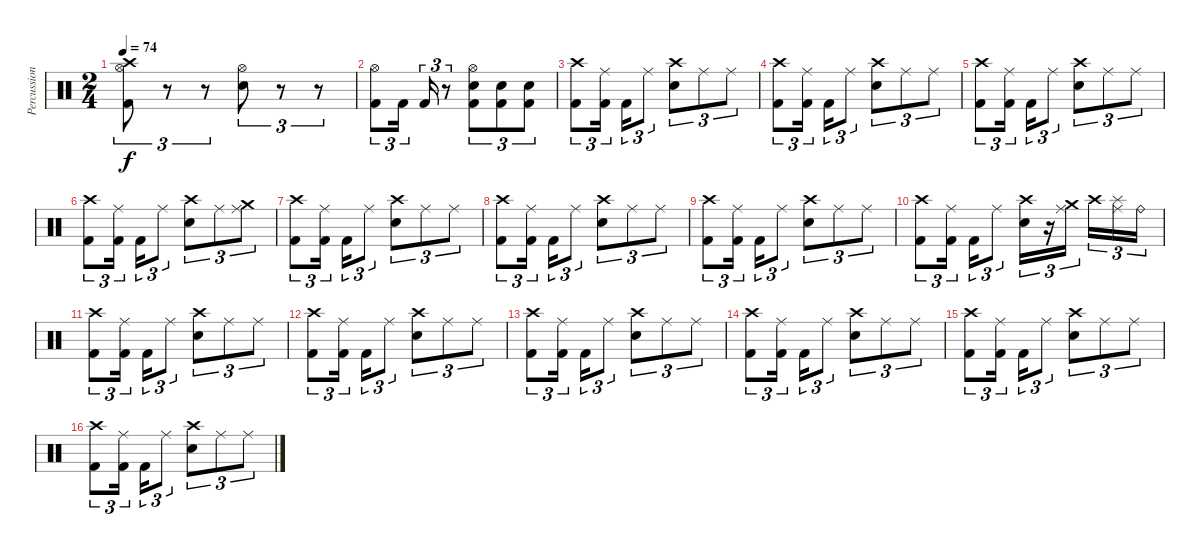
\track ("Percussion" "Percussion") {instrument percussion}
\staff {score}
\articulation defaults
\ts (2 4)
\tempo 74
\clef neutral
\ks c
("Crash high (hit)" "Hi-Hat (open)" "Kick (hit) 2").8{tu (3 2) dy f} r.8{tu (3 2)} r.8{tu (3 2)} ("Hi-Hat (open)" "Snare (hit) 2").8{tu (3 2)} r.8{tu (3 2)} r.8{tu (3 2)} |
("Hi-Hat (open)" "Kick (hit) 2").8{tu (3 2)} "Kick (hit) 2".16{tu (3 2)} "Kick (hit) 2".16{tu (3 2)} r.8{tu (3 2)} ("Hi-Hat (open)" "Kick (hit) 2" "Snare (hit) 2").8{tu (3 2)} ("Snare (hit) 2" "Kick (hit) 2").8{tu (3 2)} ("Kick (hit) 2" "Snare (hit) 2").8{tu (3 2)} |
("Crash high (hit)" "Kick (hit) 2").8{tu (3 2)} ("Ride (middle)" "Kick (hit) 2").16{tu (3 2)} "Kick (hit) 2".16{tu (3 2)} "Ride (middle)".8{tu (3 2)} ("Crash high (hit)" "Snare (hit) 2").8{tu (3 2)} "Ride (middle)".8{tu (3 2)} "Ride (middle)".8{tu (3 2)} |
("Crash high (hit)" "Kick (hit) 2").8{tu (3 2)} ("Ride (middle)" "Kick (hit) 2").16{tu (3 2)} "Kick (hit) 2".16{tu (3 2)} "Ride (middle)".8{tu (3 2)} ("Crash high (hit)" "Snare (hit) 2").8{tu (3 2)} "Ride (middle)".8{tu (3 2)} "Ride (middle)".8{tu (3 2)} |
("Crash high (hit)" "Kick (hit) 2").8{tu (3 2)} ("Ride (middle)" "Kick (hit) 2").16{tu (3 2)} "Kick (hit) 2".16{tu (3 2)} "Ride (middle)".8{tu (3 2)} ("Crash high (hit)" "Snare (hit) 2").8{tu (3 2)} "Ride (middle)".8{tu (3 2)} "Ride (middle)".8{tu (3 2)} |
("Crash high (hit)" "Kick (hit) 2").8{tu (3 2)} ("Ride (middle)" "Kick (hit) 2").16{tu (3 2)} "Kick (hit) 2".16{tu (3 2)} "Ride (middle)".8{tu (3 2)} ("Crash high (hit)" "Snare (hit) 2").8{tu (3 2)} "Ride (middle)".8{tu (3 2)} ("Ride (middle)" "Crash medium (hit)").8{tu (3 2)} |
("Crash high (hit)" "Kick (hit) 2").8{tu (3 2)} ("Ride (middle)" "Kick (hit) 2").16{tu (3 2)} "Kick (hit) 2".16{tu (3 2)} "Ride (middle)".8{tu (3 2)} ("Crash high (hit)" "Snare (hit) 2").8{tu (3 2)} "Ride (middle)".8{tu (3 2)} "Ride (middle)".8{tu (3 2)} |
("Crash high (hit)" "Kick (hit) 2").8{tu (3 2)} ("Ride (middle)" "Kick (hit) 2").16{tu (3 2)} "Kick (hit) 2".16{tu (3 2)} "Ride (middle)".8{tu (3 2)} ("Crash high (hit)" "Snare (hit) 2").8{tu (3 2)} "Ride (middle)".8{tu (3 2)} "Ride (middle)".8{tu (3 2)} |
("Crash high (hit)" "Kick (hit) 2").8{tu (3 2)} ("Ride (middle)" "Kick (hit) 2").16{tu (3 2)} "Kick (hit) 2".16{tu (3 2)} "Ride (middle)".8{tu (3 2)} ("Crash high (hit)" "Snare (hit) 2").8{tu (3 2)} "Ride (middle)".8{tu (3 2)} "Ride (middle)".8{tu (3 2)} |
("Crash high (hit)" "Kick (hit) 2").8{tu (3 2)} ("Ride (middle)" "Kick (hit) 2").16{tu (3 2)} "Kick (hit) 2".16{tu (3 2)} "Ride (middle)".8{tu (3 2)} ("Crash high (hit)" "Snare (hit) 2").16{tu (3 2)} r.16{tu (3 2)} ("Ride (middle)" "Crash medium (hit)").16{tu (3 2)} "Crash high (hit)".16{tu (3 2)} ("Ride (middle)" "Splash (hit)").16{tu (3 2)} "Ride (bell)".16{tu (3 2)} |
("Crash high (hit)" "Kick (hit) 2").8{tu (3 2)} ("Ride (middle)" "Kick (hit) 2").16{tu (3 2)} "Kick (hit) 2".16{tu (3 2)} "Ride (middle)".8{tu (3 2)} ("Crash high (hit)" "Snare (hit) 2").8{tu (3 2)} "Ride (middle)".8{tu (3 2)} "Ride (middle)".8{tu (3 2)} |
("Crash high (hit)" "Kick (hit) 2").8{tu (3 2)} ("Ride (middle)" "Kick (hit) 2").16{tu (3 2)} "Kick (hit) 2".16{tu (3 2)} "Ride (middle)".8{tu (3 2)} ("Crash high (hit)" "Snare (hit) 2").8{tu (3 2)} "Ride (middle)".8{tu (3 2)} "Ride (middle)".8{tu (3 2)} |
("Crash high (hit)" "Kick (hit) 2").8{tu (3 2)} ("Ride (middle)" "Kick (hit) 2").16{tu (3 2)} "Kick (hit) 2".16{tu (3 2)} "Ride (middle)".8{tu (3 2)} ("Crash high (hit)" "Snare (hit) 2").8{tu (3 2)} "Ride (middle)".8{tu (3 2)} "Ride (middle)".8{tu (3 2)} |
("Crash high (hit)" "Kick (hit) 2").8{tu (3 2)} ("Ride (middle)" "Kick (hit) 2").16{tu (3 2)} "Kick (hit) 2".16{tu (3 2)} "Ride (middle)".8{tu (3 2)} ("Crash high (hit)" "Snare (hit) 2").8{tu (3 2)} "Ride (middle)".8{tu (3 2)} "Ride (middle)".8{tu (3 2)} |
("Crash high (hit)" "Kick (hit) 2").8{tu (3 2)} ("Ride (middle)" "Kick (hit) 2").16{tu (3 2)} "Kick (hit) 2".16{tu (3 2)} "Ride (middle)".8{tu (3 2)} ("Crash high (hit)" "Snare (hit) 2").8{tu (3 2)} "Ride (middle)".8{tu (3 2)} "Ride (middle)".8{tu (3 2)} |
("Crash high (hit)" "Kick (hit) 2").8{tu (3 2)} ("Ride (middle)" "Kick (hit) 2").16{tu (3 2)} "Kick (hit) 2".16{tu (3 2)} "Ride (middle)".8{tu (3 2)} ("Crash high (hit)" "Snare (hit) 2").8{tu (3 2)} "Ride (middle)".8{tu (3 2)} "Ride (middle)".8{tu (3 2)}
